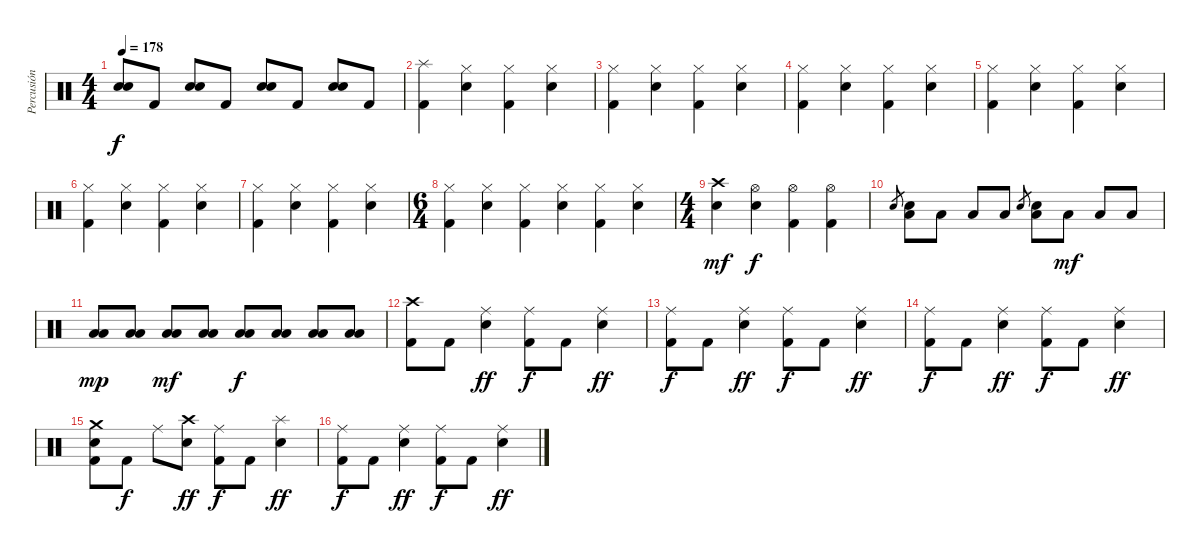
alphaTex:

\track ("Percusión" "Percusión") {instrument percussion}
\staff {score}
\articulation defaults
\ts (4 4)
\tempo 178
\clef neutral
\ks c
("Snare (hit) 2" "Snare (hit) 2").8{dy f} "Kick (hit) 2".8 ("Snare (hit) 2" "Snare (hit) 2").8 "Kick (hit) 2".8 ("Snare (hit) 2" "Snare (hit) 2").8 "Kick (hit) 2".8 ("Snare (hit) 2" "Snare (hit) 2").8 "Kick (hit) 2".8 |
("Kick (hit) 2" "Splash (hit)").4 ("Snare (hit) 2" "Hi-Hat (closed)").4 ("Kick (hit) 2" "Hi-Hat (closed)").4 ("Snare (hit) 2" "Hi-Hat (closed)").4 |
("Kick (hit) 2" "Hi-Hat (closed)").4 ("Snare (hit) 2" "Hi-Hat (closed)").4 ("Kick (hit) 2" "Hi-Hat (closed)").4 ("Snare (hit) 2" "Hi-Hat (closed)").4 |
("Kick (hit) 2" "Hi-Hat (closed)").4 ("Snare (hit) 2" "Hi-Hat (closed)").4 ("Kick (hit) 2" "Hi-Hat (closed)").4 ("Snare (hit) 2" "Hi-Hat (closed)").4 |
("Kick (hit) 2" "Hi-Hat (closed)").4 ("Snare (hit) 2" "Hi-Hat (closed)").4 ("Kick (hit) 2" "Hi-Hat (closed)").4 ("Snare (hit) 2" "Hi-Hat (closed)").4 |
("Kick (hit) 2" "Hi-Hat (closed)").4 ("Snare (hit) 2" "Hi-Hat (closed)").4 ("Kick (hit) 2" "Hi-Hat (closed)").4 ("Snare (hit) 2" "Hi-Hat (closed)").4 |
("Kick (hit) 2" "Hi-Hat (closed)").4 ("Snare (hit) 2" "Hi-Hat (closed)").4 ("Kick (hit) 2" "Hi-Hat (closed)").4 ("Snare (hit) 2" "Hi-Hat (closed)").4 |
\ts (6 4)
("Hi-Hat (closed)" "Kick (hit) 2").4 ("Hi-Hat (closed)" "Snare (hit) 2").4 ("Hi-Hat (closed)" "Kick (hit) 2").4 ("Hi-Hat (closed)" "Snare (hit) 2").4 ("Hi-Hat (closed)" "Kick (hit) 2").4 ("Hi-Hat (closed)" "Snare (hit) 2").4{volume 16} |
\ts (4 4)
("Snare (hit) 2" "Crash high (hit)").4{dy mf} ("Snare (hit) 2" "Hi-Hat (open)").4{dy f} ("Kick (hit) 2" "Hi-Hat (open)").4 ("Kick (hit) 2" "Hi-Hat (open)").4 |
"Snare (hit) 2".8{gr} ("Snare (hit) 2" "Low Floor Tom (hit)").8 "Low Floor Tom (hit)".8 "Low Floor Tom (hit)".8 "Low Floor Tom (hit)".8 "Snare (hit) 2".8{gr} ("Snare (hit) 2" "Low Floor Tom (hit)").8 "Low Floor Tom (hit)".8{dy mf} "Low Floor Tom (hit)".8 "Low Floor Tom (hit)".8 |
("Low Floor Tom (hit)" "Low Floor Tom (hit)").8{dy mp} ("Low Floor Tom (hit)" "Low Floor Tom (hit)").8 ("Low Floor Tom (hit)" "Low Floor Tom (hit)").8{dy mf} ("Low Floor Tom (hit)" "Low Floor Tom (hit)").8 ("Low Floor Tom (hit)" "Low Floor Tom (hit)").8{dy f} ("Low Floor Tom (hit)" "Low Floor Tom (hit)").8 ("Low Floor Tom (hit)" "Low Floor Tom (hit)").8 ("Low Floor Tom (hit)" "Low Floor Tom (hit)").8 |
("Crash high (hit)" "Kick (hit) 2").8 "Kick (hit) 2".8 ("Ride (middle)" "Snare (hit) 2").4{dy ff} ("Ride (middle)" "Kick (hit) 2").8{dy f} "Kick (hit) 2".8 ("Ride (middle)" "Snare (hit) 2").4{dy ff} |
("Ride (middle)" "Kick (hit) 2").8{dy f} "Kick (hit) 2".8 ("Ride (middle)" "Snare (hit) 2").4{dy ff} ("Ride (middle)" "Kick (hit) 2").8{dy f} "Kick (hit) 2".8 ("Ride (middle)" "Snare (hit) 2").4{dy ff} |
("Ride (middle)" "Kick (hit) 2").8{dy f} "Kick (hit) 2".8 ("Ride (middle)" "Snare (hit) 2").4{dy ff} ("Ride (middle)" "Kick (hit) 2").8{dy f} "Kick (hit) 2".8 ("Ride (middle)" "Snare (hit) 2").4{dy ff} |
("Kick (hit) 2" "Snare (hit) 2" "Crash medium (hit)").8 "Kick (hit) 2".8{dy f} "Ride (middle)".8 ("Snare (hit) 2" "Crash high (hit)").8{dy ff} ("Kick (hit) 2" "Ride (middle)").8{dy f} "Kick (hit) 2".8 ("Splash (hit)" "Snare (hit) 2").4{dy ff} |
("Ride (middle)" "Kick (hit) 2").8{dy f} "Kick (hit) 2".8 ("Ride (middle)" "Snare (hit) 2").4{dy ff} ("Ride (middle)" "Kick (hit) 2").8{dy f} "Kick (hit) 2".8 ("Ride (middle)" "Snare (hit) 2").4{dy ff}
